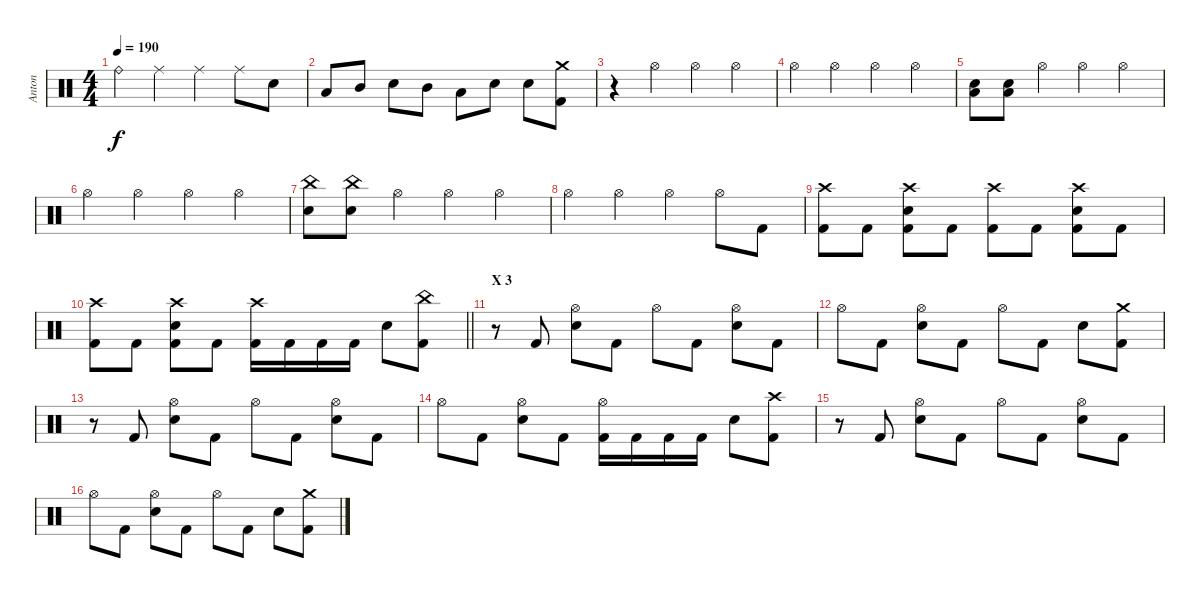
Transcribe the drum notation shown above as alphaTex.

\track ("Anton" "Anton") {instrument percussion}
\staff {score}
\articulation defaults
\ts (4 4)
\tempo 190
\clef neutral
\ks c "Ride (bell)".4{dy f} "Ride (middle)".4 "Ride (middle)".4 "Ride (middle)".8 "Electric Snare (hit)".8
|
"Low Floor Tom (hit)".8 "Mid Tom (hit)".8 "Electric Snare (hit)".8 "Mid Tom (hit)".8 "Low Floor Tom (hit)".8 "Electric Snare (hit)".8 "Electric Snare (hit)".8 ("Crash medium (hit)" "Kick (hit) 2").8 |
r.4 "Hi-Hat (open)".4 "Hi-Hat (open)".4 "Hi-Hat (open)".4 |
"Hi-Hat (open)".4 "Hi-Hat (open)".4 "Hi-Hat (open)".4 "Hi-Hat (open)".4 |
("Electric Snare (hit)" "Low Floor Tom (hit)").8 ("Electric Snare (hit)" "Low Floor Tom (hit)").8 "Hi-Hat (open)".4 "Hi-Hat (open)".4 "Hi-Hat (open)".4 |
"Hi-Hat (open)".4 "Hi-Hat (open)".4 "Hi-Hat (open)".4 "Hi-Hat (open)".4 |
("China (hit)" "Electric Snare (hit)").8 ("China (hit)" "Electric Snare (hit)").8 "Hi-Hat (open)".4 "Hi-Hat (open)".4 "Hi-Hat (open)".4 |
"Hi-Hat (open)".4 "Hi-Hat (open)".4 "Hi-Hat (open)".4 "Hi-Hat (open)".8 "Kick (hit) 2".8 |
("Crash high (hit)" "Kick (hit) 2").8 "Kick (hit) 2".8 ("Crash high (hit)" "Electric Snare (hit)" "Kick (hit) 2").8 "Kick (hit) 2".8 ("Crash high (hit)" "Kick (hit) 2").8 "Kick (hit) 2".8 ("Crash high (hit)" "Electric Snare (hit)" "Kick (hit) 2").8 "Kick (hit) 2".8 |
\barLineRight lightlight
("Crash high (hit)" "Kick (hit) 2").8 "Kick (hit) 2".8 ("Crash high (hit)" "Electric Snare (hit)" "Kick (hit) 2").8 "Kick (hit) 2".8 ("Crash high (hit)" "Kick (hit) 2").16 "Kick (hit) 2".16 "Kick (hit) 2".16 "Kick (hit) 2".16 "Electric Snare (hit)".8 ("China (hit)" "Kick (hit) 2").8 |
\section ("" "Х 3")
r.8 "Kick (hit) 2".8 ("Hi-Hat (open)" "Electric Snare (hit)").8 "Kick (hit) 2".8 "Hi-Hat (open)".8 "Kick (hit) 2".8 ("Hi-Hat (open)" "Electric Snare (hit)").8 "Kick (hit) 2".8 |
"Hi-Hat (open)".8 "Kick (hit) 2".8 ("Hi-Hat (open)" "Electric Snare (hit)").8 "Kick (hit) 2".8 "Hi-Hat (open)".8 "Kick (hit) 2".8 "Electric Snare (hit)".8 ("Crash medium (hit)" "Kick (hit) 2").8 |
r.8 "Kick (hit) 2".8 ("Hi-Hat (open)" "Electric Snare (hit)").8 "Kick (hit) 2".8 "Hi-Hat (open)".8 "Kick (hit) 2".8 ("Hi-Hat (open)" "Electric Snare (hit)").8 "Kick (hit) 2".8 |
"Hi-Hat (open)".8 "Kick (hit) 2".8 ("Hi-Hat (open)" "Electric Snare (hit)").8 "Kick (hit) 2".8 ("Hi-Hat (open)" "Kick (hit) 2").16 "Kick (hit) 2".16 "Kick (hit) 2".16 "Kick (hit) 2".16 "Electric Snare (hit)".8 ("Crash high (hit)" "Kick (hit) 2").8 |
r.8 "Kick (hit) 2".8 ("Hi-Hat (open)" "Electric Snare (hit)").8 "Kick (hit) 2".8 "Hi-Hat (open)".8 "Kick (hit) 2".8 ("Hi-Hat (open)" "Electric Snare (hit)").8 "Kick (hit) 2".8 |
"Hi-Hat (open)".8 "Kick (hit) 2".8 ("Hi-Hat (open)" "Electric Snare (hit)").8 "Kick (hit) 2".8 "Hi-Hat (open)".8 "Kick (hit) 2".8 "Electric Snare (hit)".8 ("Crash medium (hit)" "Kick (hit) 2").8
